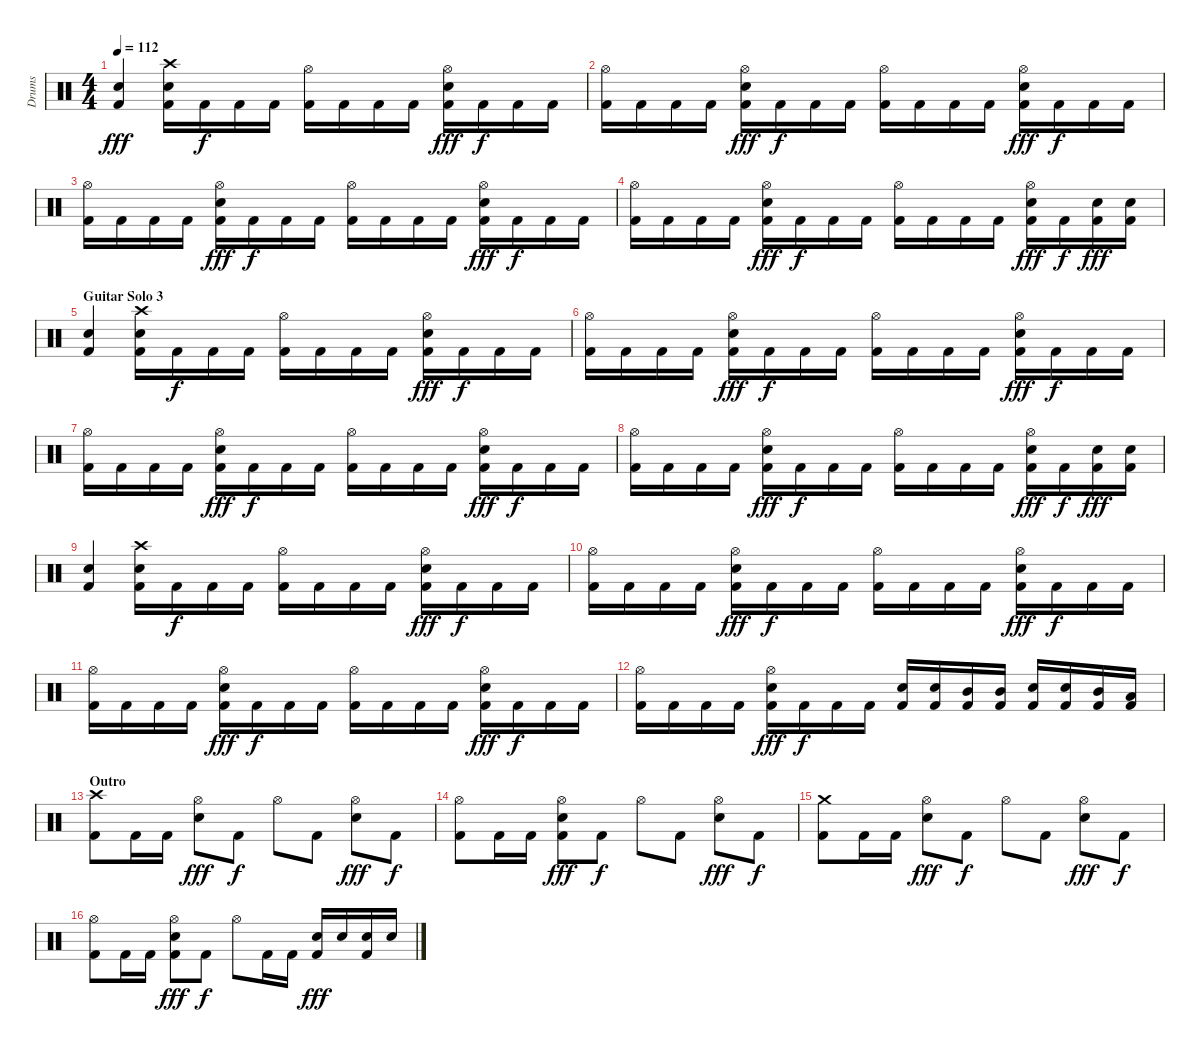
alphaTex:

\track ("Drums" "Drums") {instrument percussion}
\staff {score}
\articulation defaults
\ts (4 4)
\tempo 112
\clef neutral
\ks c
("Snare (hit) 2" "Kick (hit) 2").4{dy fff} ("Crash high (hit)" "Snare (hit) 2" "Kick (hit) 2").16 "Kick (hit) 2".16{dy f} "Kick (hit) 2".16 "Kick (hit) 2".16 ("Hi-Hat (open)" "Kick (hit) 2").16 "Kick (hit) 2".16 "Kick (hit) 2".16 "Kick (hit) 2".16 ("Hi-Hat (open)" "Snare (hit) 2" "Kick (hit) 2").16{dy fff} "Kick (hit) 2".16{dy f} "Kick (hit) 2".16 "Kick (hit) 2".16 |
("Hi-Hat (open)" "Kick (hit) 2").16 "Kick (hit) 2".16 "Kick (hit) 2".16 "Kick (hit) 2".16 ("Hi-Hat (open)" "Snare (hit) 2" "Kick (hit) 2").16{dy fff} "Kick (hit) 2".16{dy f} "Kick (hit) 2".16 "Kick (hit) 2".16 ("Hi-Hat (open)" "Kick (hit) 2").16 "Kick (hit) 2".16 "Kick (hit) 2".16 "Kick (hit) 2".16 ("Hi-Hat (open)" "Snare (hit) 2" "Kick (hit) 2").16{dy fff} "Kick (hit) 2".16{dy f} "Kick (hit) 2".16 "Kick (hit) 2".16 |
("Hi-Hat (open)" "Kick (hit) 2").16 "Kick (hit) 2".16 "Kick (hit) 2".16 "Kick (hit) 2".16 ("Hi-Hat (open)" "Snare (hit) 2" "Kick (hit) 2").16{dy fff} "Kick (hit) 2".16{dy f} "Kick (hit) 2".16 "Kick (hit) 2".16 ("Hi-Hat (open)" "Kick (hit) 2").16 "Kick (hit) 2".16 "Kick (hit) 2".16 "Kick (hit) 2".16 ("Hi-Hat (open)" "Snare (hit) 2" "Kick (hit) 2").16{dy fff} "Kick (hit) 2".16{dy f} "Kick (hit) 2".16 "Kick (hit) 2".16 |
("Hi-Hat (open)" "Kick (hit) 2").16 "Kick (hit) 2".16 "Kick (hit) 2".16 "Kick (hit) 2".16 ("Hi-Hat (open)" "Snare (hit) 2" "Kick (hit) 2").16{dy fff} "Kick (hit) 2".16{dy f} "Kick (hit) 2".16 "Kick (hit) 2".16 ("Hi-Hat (open)" "Kick (hit) 2").16 "Kick (hit) 2".16 "Kick (hit) 2".16 "Kick (hit) 2".16 ("Hi-Hat (open)" "Snare (hit) 2" "Kick (hit) 2").16{dy fff} "Kick (hit) 2".16{dy f} ("Snare (hit) 2" "Kick (hit) 2").16{dy fff} ("Snare (hit) 2" "Kick (hit) 2").16 |
\section ("" "Guitar Solo 3")
("Snare (hit) 2" "Kick (hit) 2").4 ("Crash high (hit)" "Snare (hit) 2" "Kick (hit) 2").16 "Kick (hit) 2".16{dy f} "Kick (hit) 2".16 "Kick (hit) 2".16 ("Hi-Hat (open)" "Kick (hit) 2").16 "Kick (hit) 2".16 "Kick (hit) 2".16 "Kick (hit) 2".16 ("Hi-Hat (open)" "Snare (hit) 2" "Kick (hit) 2").16{dy fff} "Kick (hit) 2".16{dy f} "Kick (hit) 2".16 "Kick (hit) 2".16 |
("Hi-Hat (open)" "Kick (hit) 2").16 "Kick (hit) 2".16 "Kick (hit) 2".16 "Kick (hit) 2".16 ("Hi-Hat (open)" "Snare (hit) 2" "Kick (hit) 2").16{dy fff} "Kick (hit) 2".16{dy f} "Kick (hit) 2".16 "Kick (hit) 2".16 ("Hi-Hat (open)" "Kick (hit) 2").16 "Kick (hit) 2".16 "Kick (hit) 2".16 "Kick (hit) 2".16 ("Hi-Hat (open)" "Snare (hit) 2" "Kick (hit) 2").16{dy fff} "Kick (hit) 2".16{dy f} "Kick (hit) 2".16 "Kick (hit) 2".16 |
("Hi-Hat (open)" "Kick (hit) 2").16 "Kick (hit) 2".16 "Kick (hit) 2".16 "Kick (hit) 2".16 ("Hi-Hat (open)" "Snare (hit) 2" "Kick (hit) 2").16{dy fff} "Kick (hit) 2".16{dy f} "Kick (hit) 2".16 "Kick (hit) 2".16 ("Hi-Hat (open)" "Kick (hit) 2").16 "Kick (hit) 2".16 "Kick (hit) 2".16 "Kick (hit) 2".16 ("Hi-Hat (open)" "Snare (hit) 2" "Kick (hit) 2").16{dy fff} "Kick (hit) 2".16{dy f} "Kick (hit) 2".16 "Kick (hit) 2".16 |
("Hi-Hat (open)" "Kick (hit) 2").16 "Kick (hit) 2".16 "Kick (hit) 2".16 "Kick (hit) 2".16 ("Hi-Hat (open)" "Snare (hit) 2" "Kick (hit) 2").16{dy fff} "Kick (hit) 2".16{dy f} "Kick (hit) 2".16 "Kick (hit) 2".16 ("Hi-Hat (open)" "Kick (hit) 2").16 "Kick (hit) 2".16 "Kick (hit) 2".16 "Kick (hit) 2".16 ("Hi-Hat (open)" "Snare (hit) 2" "Kick (hit) 2").16{dy fff} "Kick (hit) 2".16{dy f} ("Snare (hit) 2" "Kick (hit) 2").16{dy fff} ("Snare (hit) 2" "Kick (hit) 2").16 |
("Snare (hit) 2" "Kick (hit) 2").4 ("Crash high (hit)" "Snare (hit) 2" "Kick (hit) 2").16 "Kick (hit) 2".16{dy f} "Kick (hit) 2".16 "Kick (hit) 2".16 ("Hi-Hat (open)" "Kick (hit) 2").16 "Kick (hit) 2".16 "Kick (hit) 2".16 "Kick (hit) 2".16 ("Hi-Hat (open)" "Snare (hit) 2" "Kick (hit) 2").16{dy fff} "Kick (hit) 2".16{dy f} "Kick (hit) 2".16 "Kick (hit) 2".16 |
("Hi-Hat (open)" "Kick (hit) 2").16 "Kick (hit) 2".16 "Kick (hit) 2".16 "Kick (hit) 2".16 ("Hi-Hat (open)" "Snare (hit) 2" "Kick (hit) 2").16{dy fff} "Kick (hit) 2".16{dy f} "Kick (hit) 2".16 "Kick (hit) 2".16 ("Hi-Hat (open)" "Kick (hit) 2").16 "Kick (hit) 2".16 "Kick (hit) 2".16 "Kick (hit) 2".16 ("Hi-Hat (open)" "Snare (hit) 2" "Kick (hit) 2").16{dy fff} "Kick (hit) 2".16{dy f} "Kick (hit) 2".16 "Kick (hit) 2".16 |
("Hi-Hat (open)" "Kick (hit) 2").16 "Kick (hit) 2".16 "Kick (hit) 2".16 "Kick (hit) 2".16 ("Hi-Hat (open)" "Snare (hit) 2" "Kick (hit) 2").16{dy fff} "Kick (hit) 2".16{dy f} "Kick (hit) 2".16 "Kick (hit) 2".16 ("Hi-Hat (open)" "Kick (hit) 2").16 "Kick (hit) 2".16 "Kick (hit) 2".16 "Kick (hit) 2".16 ("Hi-Hat (open)" "Snare (hit) 2" "Kick (hit) 2").16{dy fff} "Kick (hit) 2".16{dy f} "Kick (hit) 2".16 "Kick (hit) 2".16 |
("Hi-Hat (open)" "Kick (hit) 2").16 "Kick (hit) 2".16 "Kick (hit) 2".16 "Kick (hit) 2".16 ("Hi-Hat (open)" "Snare (hit) 2" "Kick (hit) 2").16{dy fff} "Kick (hit) 2".16{dy f} "Kick (hit) 2".16 "Kick (hit) 2".16 ("Snare (hit) 2" "Kick (hit) 2").16 ("Snare (hit) 2" "Kick (hit) 2").16 ("Mid Tom (hit)" "Kick (hit) 2").16 ("Mid Tom (hit)" "Kick (hit) 2").16 ("Snare (hit) 2" "Kick (hit) 2").16 ("Snare (hit) 2" "Kick (hit) 2").16 ("Mid Tom (hit)" "Kick (hit) 2").16 ("Low Tom (hit)" "Kick (hit) 2").16 |
\section ("" "Outro")
("Crash high (hit)" "Kick (hit) 2").8 "Kick (hit) 2".16 "Kick (hit) 2".16 ("Hi-Hat (open)" "Snare (hit) 2").8{dy fff} "Kick (hit) 2".8{dy f} "Hi-Hat (open)".8 "Kick (hit) 2".8 ("Hi-Hat (open)" "Snare (hit) 2").8{dy fff} "Kick (hit) 2".8{dy f} |
("Hi-Hat (open)" "Kick (hit) 2").8 "Kick (hit) 2".16 "Kick (hit) 2".16 ("Hi-Hat (open)" "Snare (hit) 2" "Kick (hit) 2").8{dy fff} "Kick (hit) 2".8{dy f} "Hi-Hat (open)".8 "Kick (hit) 2".8 ("Hi-Hat (open)" "Snare (hit) 2").8{dy fff} "Kick (hit) 2".8{dy f} |
("Crash medium (hit)" "Kick (hit) 2").8 "Kick (hit) 2".16 "Kick (hit) 2".16 ("Hi-Hat (open)" "Snare (hit) 2").8{dy fff} "Kick (hit) 2".8{dy f} "Hi-Hat (open)".8 "Kick (hit) 2".8 ("Hi-Hat (open)" "Snare (hit) 2").8{dy fff} "Kick (hit) 2".8{dy f} |
("Hi-Hat (open)" "Kick (hit) 2").8 "Kick (hit) 2".16 "Kick (hit) 2".16 ("Hi-Hat (open)" "Snare (hit) 2" "Kick (hit) 2").8{dy fff} "Kick (hit) 2".8{dy f} "Hi-Hat (open)".8 "Kick (hit) 2".16 "Kick (hit) 2".16 ("Snare (hit) 2" "Kick (hit) 2").16{dy fff} "Snare (hit) 2".16 ("Snare (hit) 2" "Kick (hit) 2").16 "Snare (hit) 2".16
